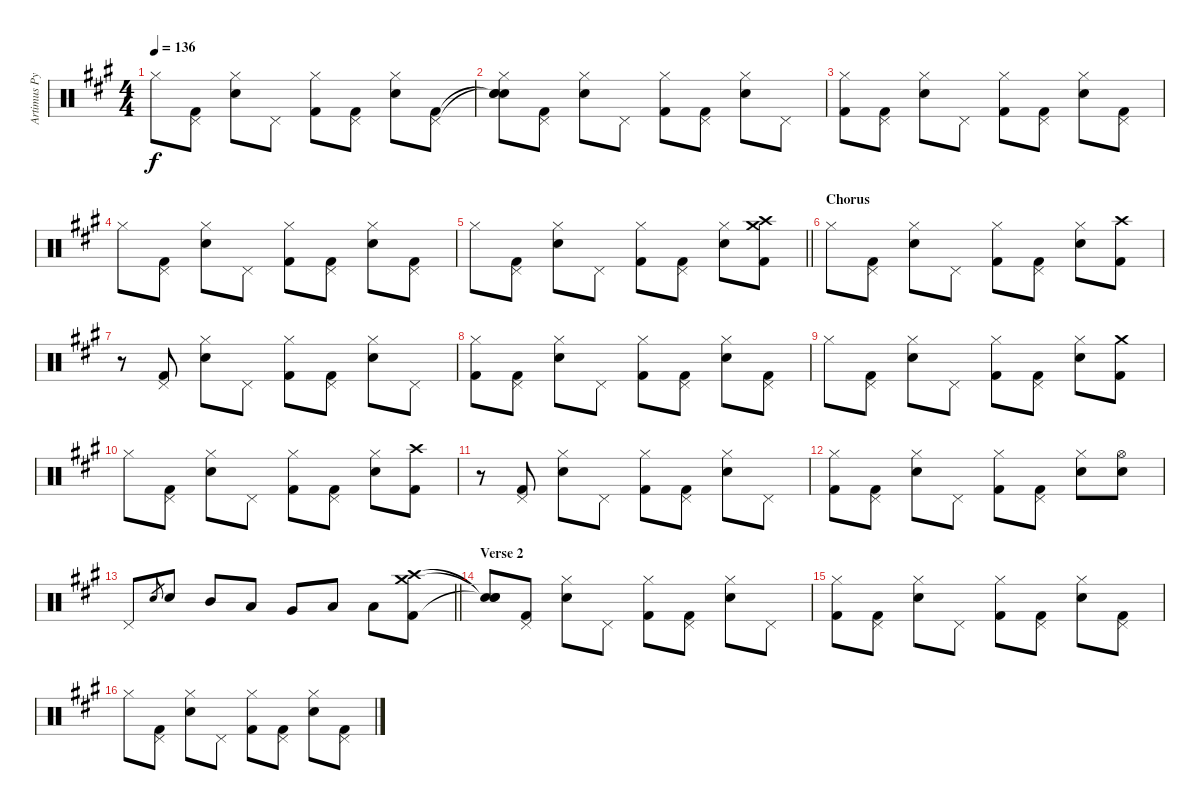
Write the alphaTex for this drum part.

\track ("Artimus Pyle - Drums" "Artimus Py") {instrument percussion}
\staff {score}
\articulation defaults
\ts (4 4)
\tempo 136
\clef neutral
\ks a "Hi-Hat (closed)".8{dy f}
("Pedal Hi-Hat (hit)" "Kick (hit) 2").8 ("Snare (hit) 2" "Hi-Hat (closed)").8 "Pedal Hi-Hat (hit)".8 ("Hi-Hat (closed)" "Kick (hit) 2").8 ("Pedal Hi-Hat (hit)" "Kick (hit) 2").8 ("Snare (hit) 2" "Hi-Hat (closed)").8 ("Pedal Hi-Hat (hit)" "Kick (hit) 2").8 |
("Snare (hit)"{t} "Snare (hit)"{t} "Hi-Hat (closed)" "Snare (hit)").8 ("Pedal Hi-Hat (hit)" "Kick (hit) 2").8 ("Snare (hit) 2" "Hi-Hat (closed)").8 "Pedal Hi-Hat (hit)".8 ("Hi-Hat (closed)" "Kick (hit) 2").8 ("Pedal Hi-Hat (hit)" "Kick (hit) 2").8 ("Snare (hit) 2" "Hi-Hat (closed)").8 "Pedal Hi-Hat (hit)".8 |
("Hi-Hat (closed)" "Kick (hit) 2").8 ("Pedal Hi-Hat (hit)" "Kick (hit) 2").8 ("Snare (hit) 2" "Hi-Hat (closed)").8 "Pedal Hi-Hat (hit)".8 ("Hi-Hat (closed)" "Kick (hit) 2").8 ("Pedal Hi-Hat (hit)" "Kick (hit) 2").8 ("Snare (hit) 2" "Hi-Hat (closed)").8 ("Pedal Hi-Hat (hit)" "Kick (hit) 2").8 |
"Hi-Hat (closed)".8 ("Pedal Hi-Hat (hit)" "Kick (hit) 2").8 ("Snare (hit) 2" "Hi-Hat (closed)").8 "Pedal Hi-Hat (hit)".8 ("Hi-Hat (closed)" "Kick (hit) 2").8 ("Pedal Hi-Hat (hit)" "Kick (hit) 2").8 ("Snare (hit) 2" "Hi-Hat (closed)").8 ("Pedal Hi-Hat (hit)" "Kick (hit) 2").8 |
\barLineRight lightlight "Hi-Hat (closed)".8
("Pedal Hi-Hat (hit)" "Kick (hit) 2").8 ("Snare (hit) 2" "Hi-Hat (closed)").8 "Pedal Hi-Hat (hit)".8 ("Hi-Hat (closed)" "Kick (hit) 2").8 ("Pedal Hi-Hat (hit)" "Kick (hit) 2").8 ("Snare (hit) 2" "Hi-Hat (closed)").8 ("Crash medium (hit)" "Crash high (hit)" "Kick (hit) 2").8 |
\section ("" "Chorus")
"Hi-Hat (closed)".8 ("Pedal Hi-Hat (hit)" "Kick (hit) 2").8 ("Snare (hit) 2" "Hi-Hat (closed)").8 "Pedal Hi-Hat (hit)".8 ("Hi-Hat (closed)" "Kick (hit) 2").8 ("Pedal Hi-Hat (hit)" "Kick (hit) 2").8 ("Snare (hit) 2" "Hi-Hat (closed)").8 ("Crash high (hit)" "Kick (hit) 2").8 |
r.8 ("Pedal Hi-Hat (hit)" "Kick (hit) 2").8 ("Snare (hit) 2" "Hi-Hat (closed)").8 "Pedal Hi-Hat (hit)".8 ("Hi-Hat (closed)" "Kick (hit) 2").8 ("Pedal Hi-Hat (hit)" "Kick (hit) 2").8 ("Snare (hit) 2" "Hi-Hat (closed)").8 "Pedal Hi-Hat (hit)".8 |
("Hi-Hat (closed)" "Kick (hit) 2").8 ("Pedal Hi-Hat (hit)" "Kick (hit) 2").8 ("Snare (hit) 2" "Hi-Hat (closed)").8 "Pedal Hi-Hat (hit)".8 ("Hi-Hat (closed)" "Kick (hit) 2").8 ("Pedal Hi-Hat (hit)" "Kick (hit) 2").8 ("Snare (hit) 2" "Hi-Hat (closed)").8 ("Pedal Hi-Hat (hit)" "Kick (hit) 2").8 |
"Hi-Hat (closed)".8 ("Pedal Hi-Hat (hit)" "Kick (hit) 2").8 ("Snare (hit) 2" "Hi-Hat (closed)").8 "Pedal Hi-Hat (hit)".8 ("Hi-Hat (closed)" "Kick (hit) 2").8 ("Pedal Hi-Hat (hit)" "Kick (hit) 2").8 ("Snare (hit) 2" "Hi-Hat (closed)").8 ("Crash medium (hit)" "Kick (hit) 2").8 |
"Hi-Hat (closed)".8 ("Pedal Hi-Hat (hit)" "Kick (hit) 2").8 ("Snare (hit) 2" "Hi-Hat (closed)").8 "Pedal Hi-Hat (hit)".8 ("Hi-Hat (closed)" "Kick (hit) 2").8 ("Pedal Hi-Hat (hit)" "Kick (hit) 2").8 ("Snare (hit) 2" "Hi-Hat (closed)").8 ("Crash high (hit)" "Kick (hit) 2").8 |
r.8 ("Pedal Hi-Hat (hit)" "Kick (hit) 2").8 ("Snare (hit) 2" "Hi-Hat (closed)").8 "Pedal Hi-Hat (hit)".8 ("Hi-Hat (closed)" "Kick (hit) 2").8 ("Pedal Hi-Hat (hit)" "Kick (hit) 2").8 ("Snare (hit) 2" "Hi-Hat (closed)").8 "Pedal Hi-Hat (hit)".8 |
("Hi-Hat (closed)" "Kick (hit) 2").8 ("Pedal Hi-Hat (hit)" "Kick (hit) 2").8 ("Snare (hit) 2" "Hi-Hat (closed)").8 "Pedal Hi-Hat (hit)".8 ("Hi-Hat (closed)" "Kick (hit) 2").8 ("Pedal Hi-Hat (hit)" "Kick (hit) 2").8 ("Snare (hit) 2" "Hi-Hat (closed)").8 ("Snare (hit) 2" "Hi-Hat (open)").8 |
\barLineRight lightlight "Pedal Hi-Hat (hit)".8 "Snare (hit) 2".8{gr} "Snare (hit) 2".8 "Mid Tom (hit)".8 "Low Tom (hit)".8 "Very Low Tom (hit)".8 "Low Floor Tom (hit)".8 "Low Floor Tom (hit)".8
("Crash medium (hit)" "Crash high (hit)" "Kick (hit) 2").8 |
\section ("" "Verse 2")
("Snare (hit)"{t} "Snare (hit)"{t} "Snare (hit)"{t}).8 ("Pedal Hi-Hat (hit)" "Kick (hit) 2").8 ("Snare (hit) 2" "Hi-Hat (closed)").8 "Pedal Hi-Hat (hit)".8 ("Hi-Hat (closed)" "Kick (hit) 2").8 ("Pedal Hi-Hat (hit)" "Kick (hit) 2").8 ("Snare (hit) 2" "Hi-Hat (closed)").8 "Pedal Hi-Hat (hit)".8 |
("Hi-Hat (closed)" "Kick (hit) 2").8 ("Pedal Hi-Hat (hit)" "Kick (hit) 2").8 ("Snare (hit) 2" "Hi-Hat (closed)").8 "Pedal Hi-Hat (hit)".8 ("Hi-Hat (closed)" "Kick (hit) 2").8 ("Pedal Hi-Hat (hit)" "Kick (hit) 2").8 ("Snare (hit) 2" "Hi-Hat (closed)").8 ("Pedal Hi-Hat (hit)" "Kick (hit) 2").8 |
"Hi-Hat (closed)".8 ("Pedal Hi-Hat (hit)" "Kick (hit) 2").8 ("Snare (hit) 2" "Hi-Hat (closed)").8 "Pedal Hi-Hat (hit)".8 ("Hi-Hat (closed)" "Kick (hit) 2").8 ("Pedal Hi-Hat (hit)" "Kick (hit) 2").8 ("Snare (hit) 2" "Hi-Hat (closed)").8 ("Pedal Hi-Hat (hit)" "Kick (hit) 2").8
